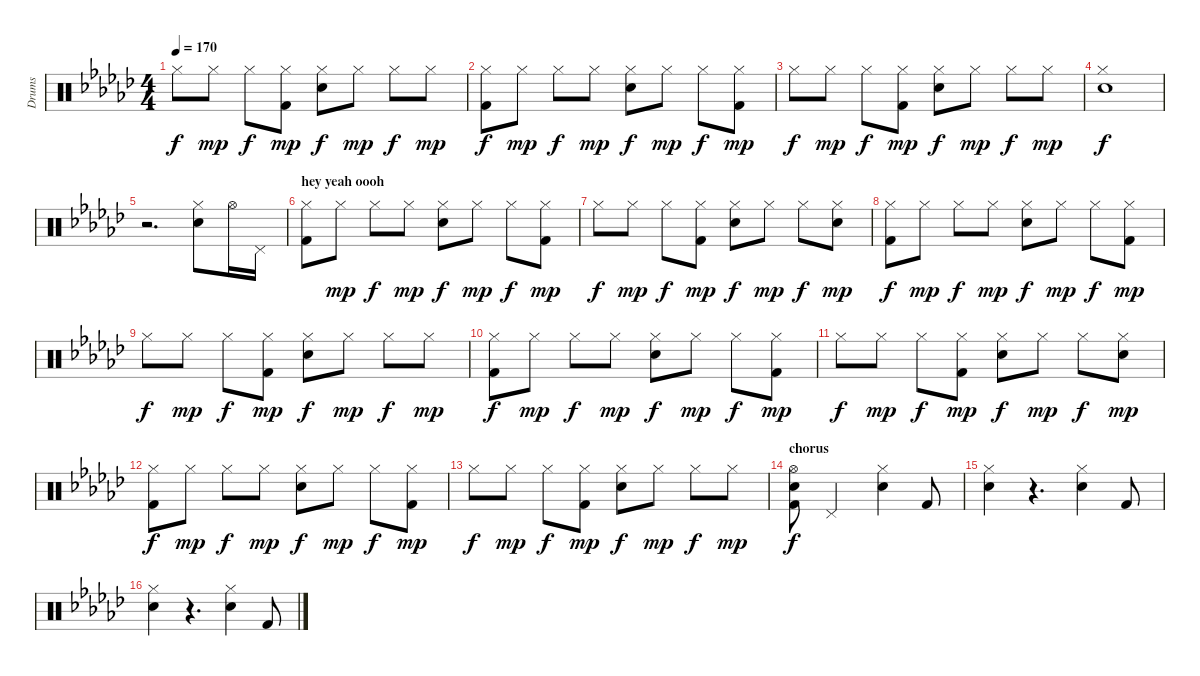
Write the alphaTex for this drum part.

\track ("Drums" "Drums") {instrument percussion}
\staff {score}
\articulation defaults
\ts (4 4)
\tempo 170
\clef neutral
\ks ebminor "Hi-Hat (closed)".8{dy f} "Hi-Hat (closed)".8{dy mp} "Hi-Hat (closed)".8{dy f}
("Hi-Hat (closed)" "Kick (hit) 2").8{dy mp} ("Hi-Hat (closed)" "Snare (hit) 2").8{dy f} "Hi-Hat (closed)".8{dy mp} "Hi-Hat (closed)".8{dy f} "Hi-Hat (closed)".8{dy mp} |
("Hi-Hat (closed)" "Kick (hit) 2").8{dy f} "Hi-Hat (closed)".8{dy mp} "Hi-Hat (closed)".8{dy f} "Hi-Hat (closed)".8{dy mp} ("Hi-Hat (closed)" "Snare (hit) 2").8{dy f} "Hi-Hat (closed)".8{dy mp} "Hi-Hat (closed)".8{dy f} ("Hi-Hat (closed)" "Kick (hit) 2").8{dy mp} |
"Hi-Hat (closed)".8{dy f} "Hi-Hat (closed)".8{dy mp} "Hi-Hat (closed)".8{dy f} ("Hi-Hat (closed)" "Kick (hit) 2").8{dy mp} ("Hi-Hat (closed)" "Snare (hit) 2").8{dy f} "Hi-Hat (closed)".8{dy mp} "Hi-Hat (closed)".8{dy f} "Hi-Hat (closed)".8{dy mp} |
("Hi-Hat (closed)" "Snare (hit) 2").1{dy f} |
r.2{d} ("Hi-Hat (closed)" "Electric Snare (hit)").8 "Hi-Hat (open)".16 "Pedal Hi-Hat (hit)".16 |
\section ("" "hey yeah oooh")
("Hi-Hat (closed)" "Kick (hit) 2").8 "Hi-Hat (closed)".8{dy mp} "Hi-Hat (closed)".8{dy f} "Hi-Hat (closed)".8{dy mp} ("Hi-Hat (closed)" "Snare (hit) 2").8{dy f} "Hi-Hat (closed)".8{dy mp} "Hi-Hat (closed)".8{dy f} ("Hi-Hat (closed)" "Kick (hit) 2").8{dy mp} |
"Hi-Hat (closed)".8{dy f} "Hi-Hat (closed)".8{dy mp} "Hi-Hat (closed)".8{dy f} ("Hi-Hat (closed)" "Kick (hit) 2").8{dy mp} ("Hi-Hat (closed)" "Snare (hit) 2").8{dy f} "Hi-Hat (closed)".8{dy mp} "Hi-Hat (closed)".8{dy f} ("Hi-Hat (closed)" "Snare (hit) 2").8{dy mp} |
("Hi-Hat (closed)" "Kick (hit) 2").8{dy f} "Hi-Hat (closed)".8{dy mp} "Hi-Hat (closed)".8{dy f} "Hi-Hat (closed)".8{dy mp} ("Hi-Hat (closed)" "Snare (hit) 2").8{dy f} "Hi-Hat (closed)".8{dy mp} "Hi-Hat (closed)".8{dy f} ("Hi-Hat (closed)" "Kick (hit) 2").8{dy mp} |
"Hi-Hat (closed)".8{dy f} "Hi-Hat (closed)".8{dy mp} "Hi-Hat (closed)".8{dy f} ("Hi-Hat (closed)" "Kick (hit) 2").8{dy mp} ("Hi-Hat (closed)" "Snare (hit) 2").8{dy f} "Hi-Hat (closed)".8{dy mp} "Hi-Hat (closed)".8{dy f} "Hi-Hat (closed)".8{dy mp} |
("Hi-Hat (closed)" "Kick (hit) 2").8{dy f} "Hi-Hat (closed)".8{dy mp} "Hi-Hat (closed)".8{dy f} "Hi-Hat (closed)".8{dy mp} ("Hi-Hat (closed)" "Snare (hit) 2").8{dy f} "Hi-Hat (closed)".8{dy mp} "Hi-Hat (closed)".8{dy f} ("Hi-Hat (closed)" "Kick (hit) 2").8{dy mp} |
"Hi-Hat (closed)".8{dy f} "Hi-Hat (closed)".8{dy mp} "Hi-Hat (closed)".8{dy f} ("Hi-Hat (closed)" "Kick (hit) 2").8{dy mp} ("Hi-Hat (closed)" "Snare (hit) 2").8{dy f} "Hi-Hat (closed)".8{dy mp} "Hi-Hat (closed)".8{dy f} ("Hi-Hat (closed)" "Snare (hit) 2").8{dy mp} |
("Hi-Hat (closed)" "Kick (hit) 2").8{dy f} "Hi-Hat (closed)".8{dy mp} "Hi-Hat (closed)".8{dy f} "Hi-Hat (closed)".8{dy mp} ("Hi-Hat (closed)" "Snare (hit) 2").8{dy f} "Hi-Hat (closed)".8{dy mp} "Hi-Hat (closed)".8{dy f} ("Hi-Hat (closed)" "Kick (hit) 2").8{dy mp} |
"Hi-Hat (closed)".8{dy f} "Hi-Hat (closed)".8{dy mp} "Hi-Hat (closed)".8{dy f} ("Hi-Hat (closed)" "Kick (hit) 2").8{dy mp} ("Hi-Hat (closed)" "Snare (hit) 2").8{dy f} "Hi-Hat (closed)".8{dy mp} "Hi-Hat (closed)".8{dy f} "Hi-Hat (closed)".8{dy mp} |
\section ("" "chorus")
("Hi-Hat (open)" "Snare (hit) 2" "Kick (hit) 2").8{dy f} "Pedal Hi-Hat (hit)".2 ("Hi-Hat (closed)" "Snare (hit) 2").4 "Kick (hit) 2".8 |
("Hi-Hat (closed)" "Snare (hit) 2").4 r.4{d} ("Hi-Hat (closed)" "Snare (hit) 2").4 "Kick (hit) 2".8 |
("Hi-Hat (closed)" "Snare (hit) 2").4 r.4{d} ("Hi-Hat (closed)" "Snare (hit) 2").4 "Kick (hit) 2".8
